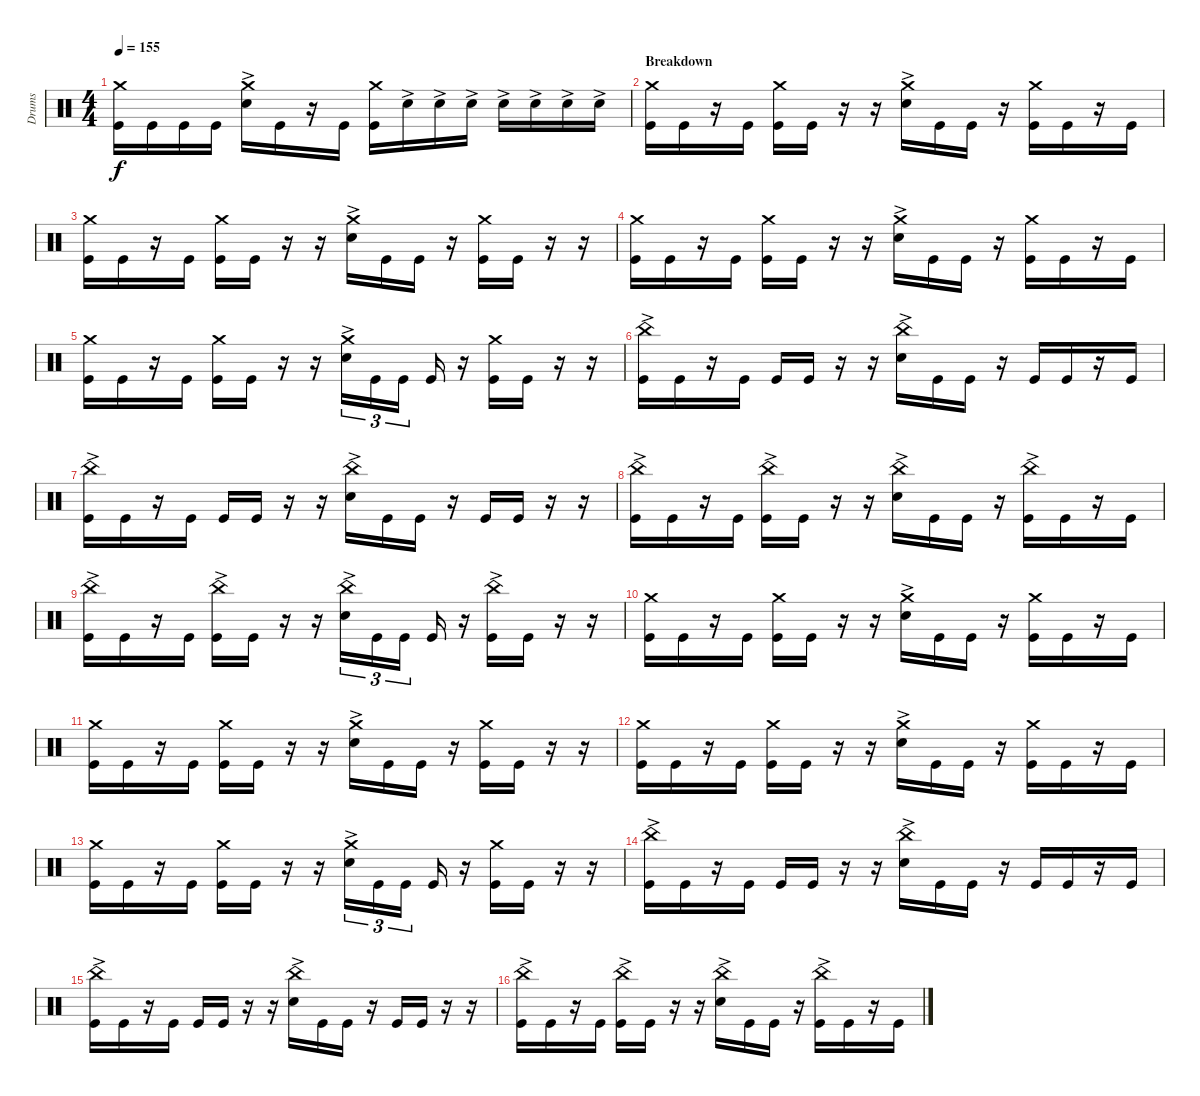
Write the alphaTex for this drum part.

\track ("Drums" "Drums") {instrument percussion}
\staff {score}
\articulation defaults
\ts (4 4)
\tempo 155
\clef neutral
\ks c
("Crash medium (hit)" "Kick (hit)").16{dy f} "Kick (hit)".16 "Kick (hit)".16 "Kick (hit)".16 ("Crash medium (hit)" "Snare (hit) 2"{ac}).16 "Kick (hit)".16 r.16 "Kick (hit)".16 ("Kick (hit)" "Crash medium (hit)").16 "Snare (hit) 2"{ac}.16 "Snare (hit) 2"{ac}.16 "Snare (hit) 2"{ac}.16 "Snare (hit) 2"{ac}.16 "Snare (hit) 2"{ac}.16 "Snare (hit) 2"{ac}.16 "Snare (hit) 2"{ac}.16 |
\section ("" "Breakdown")
("Crash medium (hit)" "Kick (hit)").16 "Kick (hit)".16 r.16 "Kick (hit)".16 ("Crash medium (hit)" "Kick (hit)").16 "Kick (hit)".16 r.16 r.16 ("Crash medium (hit)" "Snare (hit) 2"{ac}).16 "Kick (hit)".16 "Kick (hit)".16 r.16 ("Crash medium (hit)" "Kick (hit)").16 "Kick (hit)".16 r.16 "Kick (hit)".16 |
("Crash medium (hit)" "Kick (hit)").16 "Kick (hit)".16 r.16 "Kick (hit)".16 ("Crash medium (hit)" "Kick (hit)").16 "Kick (hit)".16 r.16 r.16 ("Crash medium (hit)" "Snare (hit) 2"{ac}).16 "Kick (hit)".16 "Kick (hit)".16 r.16 ("Crash medium (hit)" "Kick (hit)").16 "Kick (hit)".16 r.16 r.16 |
("Crash medium (hit)" "Kick (hit)").16 "Kick (hit)".16 r.16 "Kick (hit)".16 ("Crash medium (hit)" "Kick (hit)").16 "Kick (hit)".16 r.16 r.16 ("Crash medium (hit)" "Snare (hit) 2"{ac}).16 "Kick (hit)".16 "Kick (hit)".16 r.16 ("Crash medium (hit)" "Kick (hit)").16 "Kick (hit)".16 r.16 "Kick (hit)".16 |
("Crash medium (hit)" "Kick (hit)").16 "Kick (hit)".16 r.16 "Kick (hit)".16 ("Crash medium (hit)" "Kick (hit)").16 "Kick (hit)".16 r.16 r.16 ("Crash medium (hit)" "Snare (hit) 2"{ac}).16{tu (3 2)} "Kick (hit)".16{tu (3 2)} "Kick (hit)".16{tu (3 2)} "Kick (hit)".16 r.16 ("Kick (hit)" "Crash medium (hit)").16 "Kick (hit)".16 r.16 r.16 |
("Kick (hit)" "China (hit)"{ac}).16 "Kick (hit)".16 r.16 "Kick (hit)".16 "Kick (hit)".16 "Kick (hit)".16 r.16 r.16 ("Snare (hit) 2"{ac} "China (hit)"{ac}).16 "Kick (hit)".16 "Kick (hit)".16 r.16 "Kick (hit)".16 "Kick (hit)".16 r.16 "Kick (hit)".16 |
("Kick (hit)" "China (hit)"{ac}).16 "Kick (hit)".16 r.16 "Kick (hit)".16 "Kick (hit)".16 "Kick (hit)".16 r.16 r.16 ("Snare (hit) 2"{ac} "China (hit)"{ac}).16 "Kick (hit)".16 "Kick (hit)".16 r.16 "Kick (hit)".16 "Kick (hit)".16 r.16 r.16 |
("Kick (hit)" "China (hit)"{ac}).16 "Kick (hit)".16 r.16 "Kick (hit)".16 ("Kick (hit)" "China (hit)"{ac}).16 "Kick (hit)".16 r.16 r.16 ("Snare (hit) 2"{ac} "China (hit)"{ac}).16 "Kick (hit)".16 "Kick (hit)".16 r.16 ("Kick (hit)" "China (hit)"{ac}).16 "Kick (hit)".16 r.16 "Kick (hit)".16 |
("Kick (hit)" "China (hit)"{ac}).16 "Kick (hit)".16 r.16 "Kick (hit)".16 ("Kick (hit)" "China (hit)"{ac}).16 "Kick (hit)".16 r.16 r.16 ("Snare (hit) 2"{ac} "China (hit)"{ac}).16{tu (3 2)} "Kick (hit)".16{tu (3 2)} "Kick (hit)".16{tu (3 2)} "Kick (hit)".16 r.16 ("Kick (hit)" "China (hit)"{ac}).16 "Kick (hit)".16 r.16 r.16 |
("Crash medium (hit)" "Kick (hit)").16 "Kick (hit)".16 r.16 "Kick (hit)".16 ("Crash medium (hit)" "Kick (hit)").16 "Kick (hit)".16 r.16 r.16 ("Crash medium (hit)" "Snare (hit) 2"{ac}).16 "Kick (hit)".16 "Kick (hit)".16 r.16 ("Crash medium (hit)" "Kick (hit)").16 "Kick (hit)".16 r.16 "Kick (hit)".16 |
("Crash medium (hit)" "Kick (hit)").16 "Kick (hit)".16 r.16 "Kick (hit)".16 ("Crash medium (hit)" "Kick (hit)").16 "Kick (hit)".16 r.16 r.16 ("Crash medium (hit)" "Snare (hit) 2"{ac}).16 "Kick (hit)".16 "Kick (hit)".16 r.16 ("Crash medium (hit)" "Kick (hit)").16 "Kick (hit)".16 r.16 r.16 |
("Crash medium (hit)" "Kick (hit)").16 "Kick (hit)".16 r.16 "Kick (hit)".16 ("Crash medium (hit)" "Kick (hit)").16 "Kick (hit)".16 r.16 r.16 ("Crash medium (hit)" "Snare (hit) 2"{ac}).16 "Kick (hit)".16 "Kick (hit)".16 r.16 ("Crash medium (hit)" "Kick (hit)").16 "Kick (hit)".16 r.16 "Kick (hit)".16 |
("Crash medium (hit)" "Kick (hit)").16 "Kick (hit)".16 r.16 "Kick (hit)".16 ("Crash medium (hit)" "Kick (hit)").16 "Kick (hit)".16 r.16 r.16 ("Crash medium (hit)" "Snare (hit) 2"{ac}).16{tu (3 2)} "Kick (hit)".16{tu (3 2)} "Kick (hit)".16{tu (3 2)} "Kick (hit)".16 r.16 ("Kick (hit)" "Crash medium (hit)").16 "Kick (hit)".16 r.16 r.16 |
("Kick (hit)" "China (hit)"{ac}).16 "Kick (hit)".16 r.16 "Kick (hit)".16 "Kick (hit)".16 "Kick (hit)".16 r.16 r.16 ("Snare (hit) 2"{ac} "China (hit)"{ac}).16 "Kick (hit)".16 "Kick (hit)".16 r.16 "Kick (hit)".16 "Kick (hit)".16 r.16 "Kick (hit)".16 |
("Kick (hit)" "China (hit)"{ac}).16 "Kick (hit)".16 r.16 "Kick (hit)".16 "Kick (hit)".16 "Kick (hit)".16 r.16 r.16 ("Snare (hit) 2"{ac} "China (hit)"{ac}).16 "Kick (hit)".16 "Kick (hit)".16 r.16 "Kick (hit)".16 "Kick (hit)".16 r.16 r.16 |
("Kick (hit)" "China (hit)"{ac}).16 "Kick (hit)".16 r.16 "Kick (hit)".16 ("Kick (hit)" "China (hit)"{ac}).16 "Kick (hit)".16 r.16 r.16 ("Snare (hit) 2"{ac} "China (hit)"{ac}).16 "Kick (hit)".16 "Kick (hit)".16 r.16 ("Kick (hit)" "China (hit)"{ac}).16 "Kick (hit)".16 r.16 "Kick (hit)".16
